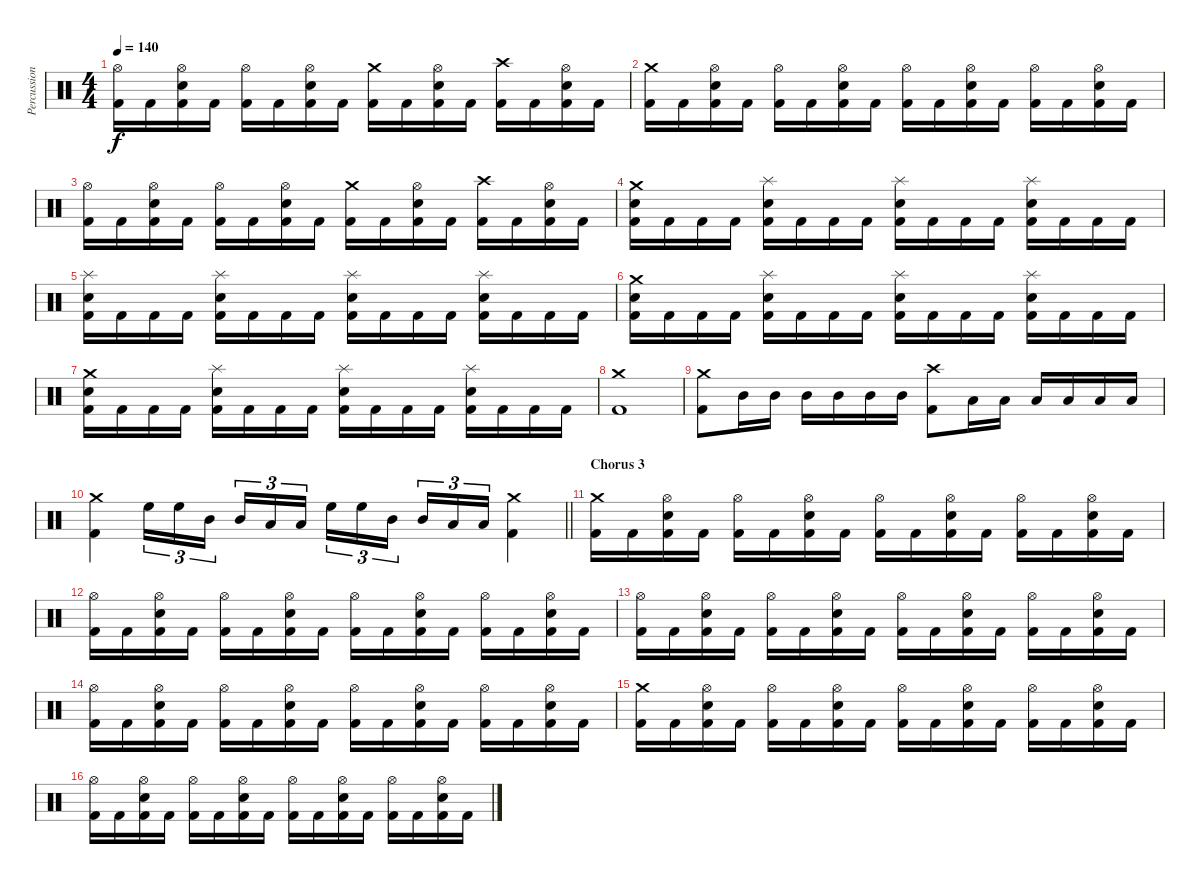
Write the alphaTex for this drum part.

\track ("Percussion" "Percussion") {instrument percussion}
\staff {score}
\articulation defaults
\ts (4 4)
\tempo 140
\clef neutral
\ks c
("Kick (hit) 2" "Hi-Hat (open)").16{dy f} "Kick (hit) 2".16 ("Kick (hit) 2" "Electric Snare (hit)" "Hi-Hat (open)").16 "Kick (hit) 2".16 ("Kick (hit) 2" "Hi-Hat (open)").16 "Kick (hit) 2".16 ("Kick (hit) 2" "Electric Snare (hit)" "Hi-Hat (open)").16 "Kick (hit) 2".16 ("Kick (hit) 2" "Crash medium (hit)").16 "Kick (hit) 2".16 ("Kick (hit) 2" "Electric Snare (hit)" "Hi-Hat (open)").16 "Kick (hit) 2".16 ("Kick (hit) 2" "Crash high (hit)").16 "Kick (hit) 2".16 ("Kick (hit) 2" "Electric Snare (hit)" "Hi-Hat (open)").16 "Kick (hit) 2".16 |
("Kick (hit) 2" "Crash medium (hit)").16 "Kick (hit) 2".16 ("Kick (hit) 2" "Electric Snare (hit)" "Hi-Hat (open)").16 "Kick (hit) 2".16 ("Kick (hit) 2" "Hi-Hat (open)").16 "Kick (hit) 2".16 ("Kick (hit) 2" "Electric Snare (hit)" "Hi-Hat (open)").16 "Kick (hit) 2".16 ("Kick (hit) 2" "Hi-Hat (open)").16 "Kick (hit) 2".16 ("Kick (hit) 2" "Electric Snare (hit)" "Hi-Hat (open)").16 "Kick (hit) 2".16 ("Kick (hit) 2" "Hi-Hat (open)").16 "Kick (hit) 2".16 ("Kick (hit) 2" "Electric Snare (hit)" "Hi-Hat (open)").16 "Kick (hit) 2".16 |
("Kick (hit) 2" "Hi-Hat (open)").16 "Kick (hit) 2".16 ("Kick (hit) 2" "Electric Snare (hit)" "Hi-Hat (open)").16 "Kick (hit) 2".16 ("Kick (hit) 2" "Hi-Hat (open)").16 "Kick (hit) 2".16 ("Kick (hit) 2" "Electric Snare (hit)" "Hi-Hat (open)").16 "Kick (hit) 2".16 ("Kick (hit) 2" "Crash medium (hit)").16 "Kick (hit) 2".16 ("Kick (hit) 2" "Electric Snare (hit)" "Hi-Hat (open)").16 "Kick (hit) 2".16 ("Kick (hit) 2" "Crash high (hit)").16 "Kick (hit) 2".16 ("Kick (hit) 2" "Electric Snare (hit)" "Hi-Hat (open)").16 "Kick (hit) 2".16 |
("Kick (hit) 2" "Electric Snare (hit)" "Crash medium (hit)").16 "Kick (hit) 2".16 "Kick (hit) 2".16 "Kick (hit) 2".16 ("Kick (hit) 2" "Electric Snare (hit)" "Splash (hit)").16 "Kick (hit) 2".16 "Kick (hit) 2".16 "Kick (hit) 2".16 ("Kick (hit) 2" "Electric Snare (hit)" "Splash (hit)").16 "Kick (hit) 2".16 "Kick (hit) 2".16 "Kick (hit) 2".16 ("Kick (hit) 2" "Electric Snare (hit)" "Splash (hit)").16 "Kick (hit) 2".16 "Kick (hit) 2".16 "Kick (hit) 2".16 |
("Kick (hit) 2" "Electric Snare (hit)" "Splash (hit)").16 "Kick (hit) 2".16 "Kick (hit) 2".16 "Kick (hit) 2".16 ("Kick (hit) 2" "Electric Snare (hit)" "Splash (hit)").16 "Kick (hit) 2".16 "Kick (hit) 2".16 "Kick (hit) 2".16 ("Kick (hit) 2" "Electric Snare (hit)" "Splash (hit)").16 "Kick (hit) 2".16 "Kick (hit) 2".16 "Kick (hit) 2".16 ("Kick (hit) 2" "Electric Snare (hit)" "Splash (hit)").16 "Kick (hit) 2".16 "Kick (hit) 2".16 "Kick (hit) 2".16 |
("Kick (hit) 2" "Electric Snare (hit)" "Crash medium (hit)").16 "Kick (hit) 2".16 "Kick (hit) 2".16 "Kick (hit) 2".16 ("Kick (hit) 2" "Electric Snare (hit)" "Splash (hit)").16 "Kick (hit) 2".16 "Kick (hit) 2".16 "Kick (hit) 2".16 ("Kick (hit) 2" "Electric Snare (hit)" "Splash (hit)").16 "Kick (hit) 2".16 "Kick (hit) 2".16 "Kick (hit) 2".16 ("Kick (hit) 2" "Electric Snare (hit)" "Splash (hit)").16 "Kick (hit) 2".16 "Kick (hit) 2".16 "Kick (hit) 2".16 |
("Kick (hit) 2" "Electric Snare (hit)" "Crash medium (hit)").16 "Kick (hit) 2".16 "Kick (hit) 2".16 "Kick (hit) 2".16 ("Kick (hit) 2" "Electric Snare (hit)" "Splash (hit)").16 "Kick (hit) 2".16 "Kick (hit) 2".16 "Kick (hit) 2".16 ("Kick (hit) 2" "Electric Snare (hit)" "Splash (hit)").16 "Kick (hit) 2".16 "Kick (hit) 2".16 "Kick (hit) 2".16 ("Kick (hit) 2" "Electric Snare (hit)" "Splash (hit)").16 "Kick (hit) 2".16 "Kick (hit) 2".16 "Kick (hit) 2".16 |
("Kick (hit) 2" "Crash medium (hit)").1 |
("Kick (hit) 2" "Crash medium (hit)").8 "Mid Tom (hit)".16 "Mid Tom (hit)".16 "Mid Tom (hit)".16 "Mid Tom (hit)".16 "Mid Tom (hit)".16 "Mid Tom (hit)".16 ("Kick (hit) 2" "Crash high (hit)").8 "Low Floor Tom (hit)".16 "Low Floor Tom (hit)".16 "Low Floor Tom (hit)".16 "Low Floor Tom (hit)".16 "Low Floor Tom (hit)".16 "Low Floor Tom (hit)".16 |
\barLineRight lightlight
("Kick (hit) 2" "Crash medium (hit)").4 "High Floor Tom (hit)".16{tu (3 2)} "High Floor Tom (hit)".16{tu (3 2)} "Mid Tom (hit)".16{tu (3 2) beam splitsecondary} "Mid Tom (hit)".16{tu (3 2)} "Low Floor Tom (hit)".16{tu (3 2)} "Low Floor Tom (hit)".16{tu (3 2)} "High Floor Tom (hit)".16{tu (3 2)} "High Floor Tom (hit)".16{tu (3 2)} "Mid Tom (hit)".16{tu (3 2) beam splitsecondary} "Mid Tom (hit)".16{tu (3 2)} "Low Floor Tom (hit)".16{tu (3 2)} "Low Floor Tom (hit)".16{tu (3 2)} ("Kick (hit) 2" "Crash medium (hit)").4 |
\section ("" "Chorus 3")
("Kick (hit) 2" "Crash medium (hit)").16 "Kick (hit) 2".16 ("Kick (hit) 2" "Electric Snare (hit)" "Hi-Hat (open)").16 "Kick (hit) 2".16 ("Kick (hit) 2" "Hi-Hat (open)").16 "Kick (hit) 2".16 ("Kick (hit) 2" "Electric Snare (hit)" "Hi-Hat (open)").16 "Kick (hit) 2".16 ("Kick (hit) 2" "Hi-Hat (open)").16 "Kick (hit) 2".16 ("Kick (hit) 2" "Electric Snare (hit)" "Hi-Hat (open)").16 "Kick (hit) 2".16 ("Kick (hit) 2" "Hi-Hat (open)").16 "Kick (hit) 2".16 ("Kick (hit) 2" "Electric Snare (hit)" "Hi-Hat (open)").16 "Kick (hit) 2".16 |
("Kick (hit) 2" "Hi-Hat (open)").16 "Kick (hit) 2".16 ("Kick (hit) 2" "Electric Snare (hit)" "Hi-Hat (open)").16 "Kick (hit) 2".16 ("Kick (hit) 2" "Hi-Hat (open)").16 "Kick (hit) 2".16 ("Kick (hit) 2" "Electric Snare (hit)" "Hi-Hat (open)").16 "Kick (hit) 2".16 ("Kick (hit) 2" "Hi-Hat (open)").16 "Kick (hit) 2".16 ("Kick (hit) 2" "Electric Snare (hit)" "Hi-Hat (open)").16 "Kick (hit) 2".16 ("Kick (hit) 2" "Hi-Hat (open)").16 "Kick (hit) 2".16 ("Kick (hit) 2" "Electric Snare (hit)" "Hi-Hat (open)").16 "Kick (hit) 2".16 |
("Kick (hit) 2" "Hi-Hat (open)").16 "Kick (hit) 2".16 ("Kick (hit) 2" "Electric Snare (hit)" "Hi-Hat (open)").16 "Kick (hit) 2".16 ("Kick (hit) 2" "Hi-Hat (open)").16 "Kick (hit) 2".16 ("Kick (hit) 2" "Electric Snare (hit)" "Hi-Hat (open)").16 "Kick (hit) 2".16 ("Kick (hit) 2" "Hi-Hat (open)").16 "Kick (hit) 2".16 ("Kick (hit) 2" "Electric Snare (hit)" "Hi-Hat (open)").16 "Kick (hit) 2".16 ("Kick (hit) 2" "Hi-Hat (open)").16 "Kick (hit) 2".16 ("Kick (hit) 2" "Electric Snare (hit)" "Hi-Hat (open)").16 "Kick (hit) 2".16 |
("Kick (hit) 2" "Hi-Hat (open)").16 "Kick (hit) 2".16 ("Kick (hit) 2" "Electric Snare (hit)" "Hi-Hat (open)").16 "Kick (hit) 2".16 ("Kick (hit) 2" "Hi-Hat (open)").16 "Kick (hit) 2".16 ("Kick (hit) 2" "Electric Snare (hit)" "Hi-Hat (open)").16 "Kick (hit) 2".16 ("Kick (hit) 2" "Hi-Hat (open)").16 "Kick (hit) 2".16 ("Kick (hit) 2" "Electric Snare (hit)" "Hi-Hat (open)").16 "Kick (hit) 2".16 ("Kick (hit) 2" "Hi-Hat (open)").16 "Kick (hit) 2".16 ("Kick (hit) 2" "Electric Snare (hit)" "Hi-Hat (open)").16 "Kick (hit) 2".16 |
("Kick (hit) 2" "Crash medium (hit)").16 "Kick (hit) 2".16 ("Kick (hit) 2" "Electric Snare (hit)" "Hi-Hat (open)").16 "Kick (hit) 2".16 ("Kick (hit) 2" "Hi-Hat (open)").16 "Kick (hit) 2".16 ("Kick (hit) 2" "Electric Snare (hit)" "Hi-Hat (open)").16 "Kick (hit) 2".16 ("Kick (hit) 2" "Hi-Hat (open)").16 "Kick (hit) 2".16 ("Kick (hit) 2" "Electric Snare (hit)" "Hi-Hat (open)").16 "Kick (hit) 2".16 ("Kick (hit) 2" "Hi-Hat (open)").16 "Kick (hit) 2".16 ("Kick (hit) 2" "Electric Snare (hit)" "Hi-Hat (open)").16 "Kick (hit) 2".16 |
("Kick (hit) 2" "Hi-Hat (open)").16 "Kick (hit) 2".16 ("Kick (hit) 2" "Electric Snare (hit)" "Hi-Hat (open)").16 "Kick (hit) 2".16 ("Kick (hit) 2" "Hi-Hat (open)").16 "Kick (hit) 2".16 ("Kick (hit) 2" "Electric Snare (hit)" "Hi-Hat (open)").16 "Kick (hit) 2".16 ("Kick (hit) 2" "Hi-Hat (open)").16 "Kick (hit) 2".16 ("Kick (hit) 2" "Electric Snare (hit)" "Hi-Hat (open)").16 "Kick (hit) 2".16 ("Kick (hit) 2" "Hi-Hat (open)").16 "Kick (hit) 2".16 ("Kick (hit) 2" "Electric Snare (hit)" "Hi-Hat (open)").16 "Kick (hit) 2".16
